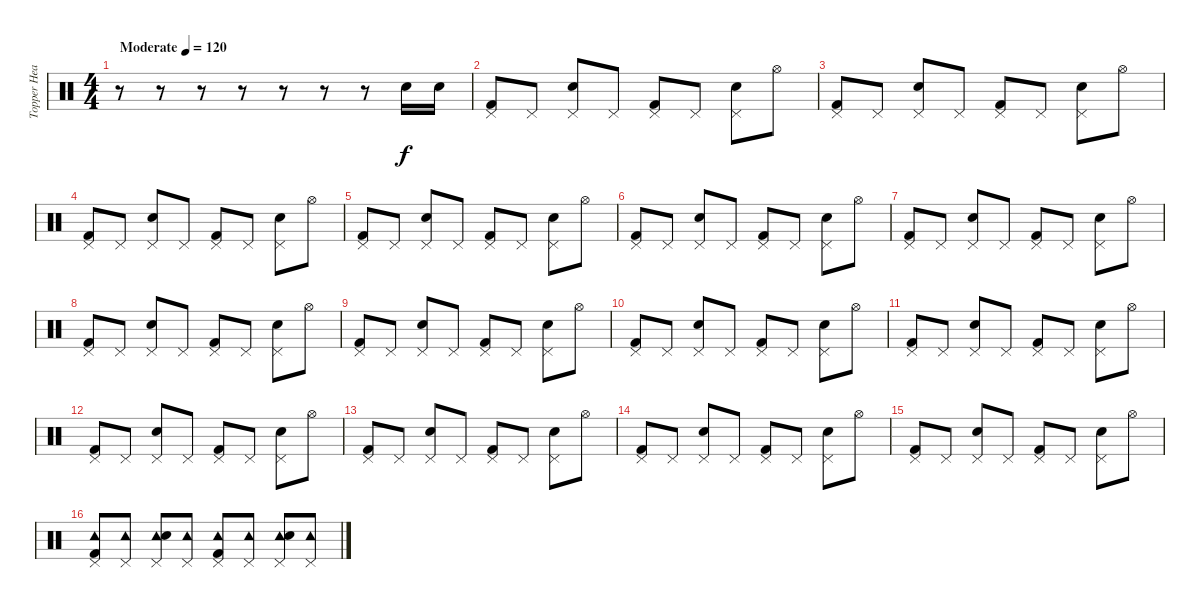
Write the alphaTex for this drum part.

\track ("Topper Headon" "Topper Hea") {instrument percussion}
\staff {score}
\articulation defaults
\ts (4 4)
\tempo (120 "Moderate")
\clef neutral
\ks c
r.8{dy f} r.8 r.8 r.8 r.8 r.8 r.8 "Electric Snare (hit)".16 "Electric Snare (hit)".16 |
("Pedal Hi-Hat (hit)" "Kick (hit) 2").8 "Pedal Hi-Hat (hit)".8 ("Pedal Hi-Hat (hit)" "Electric Snare (hit)").8 "Pedal Hi-Hat (hit)".8 ("Pedal Hi-Hat (hit)" "Kick (hit) 2").8 "Pedal Hi-Hat (hit)".8 ("Pedal Hi-Hat (hit)" "Electric Snare (hit)").8 "Hi-Hat (open)".8 |
("Pedal Hi-Hat (hit)" "Kick (hit) 2").8 "Pedal Hi-Hat (hit)".8 ("Pedal Hi-Hat (hit)" "Electric Snare (hit)").8 "Pedal Hi-Hat (hit)".8 ("Pedal Hi-Hat (hit)" "Kick (hit) 2").8 "Pedal Hi-Hat (hit)".8 ("Pedal Hi-Hat (hit)" "Electric Snare (hit)").8 "Hi-Hat (open)".8 |
("Pedal Hi-Hat (hit)" "Kick (hit) 2").8 "Pedal Hi-Hat (hit)".8 ("Pedal Hi-Hat (hit)" "Electric Snare (hit)").8 "Pedal Hi-Hat (hit)".8 ("Pedal Hi-Hat (hit)" "Kick (hit) 2").8 "Pedal Hi-Hat (hit)".8 ("Pedal Hi-Hat (hit)" "Electric Snare (hit)").8 "Hi-Hat (open)".8 |
("Pedal Hi-Hat (hit)" "Kick (hit) 2").8 "Pedal Hi-Hat (hit)".8 ("Pedal Hi-Hat (hit)" "Electric Snare (hit)").8 "Pedal Hi-Hat (hit)".8 ("Pedal Hi-Hat (hit)" "Kick (hit) 2").8 "Pedal Hi-Hat (hit)".8 ("Pedal Hi-Hat (hit)" "Electric Snare (hit)").8 "Hi-Hat (open)".8 |
("Pedal Hi-Hat (hit)" "Kick (hit) 2").8 "Pedal Hi-Hat (hit)".8 ("Pedal Hi-Hat (hit)" "Electric Snare (hit)").8 "Pedal Hi-Hat (hit)".8 ("Pedal Hi-Hat (hit)" "Kick (hit) 2").8 "Pedal Hi-Hat (hit)".8 ("Pedal Hi-Hat (hit)" "Electric Snare (hit)").8 "Hi-Hat (open)".8 |
("Pedal Hi-Hat (hit)" "Kick (hit) 2").8 "Pedal Hi-Hat (hit)".8 ("Pedal Hi-Hat (hit)" "Electric Snare (hit)").8 "Pedal Hi-Hat (hit)".8 ("Pedal Hi-Hat (hit)" "Kick (hit) 2").8 "Pedal Hi-Hat (hit)".8 ("Pedal Hi-Hat (hit)" "Electric Snare (hit)").8 "Hi-Hat (open)".8 |
("Pedal Hi-Hat (hit)" "Kick (hit) 2").8 "Pedal Hi-Hat (hit)".8 ("Pedal Hi-Hat (hit)" "Electric Snare (hit)").8 "Pedal Hi-Hat (hit)".8 ("Pedal Hi-Hat (hit)" "Kick (hit) 2").8 "Pedal Hi-Hat (hit)".8 ("Pedal Hi-Hat (hit)" "Electric Snare (hit)").8 "Hi-Hat (open)".8 |
("Pedal Hi-Hat (hit)" "Kick (hit) 2").8 "Pedal Hi-Hat (hit)".8 ("Pedal Hi-Hat (hit)" "Electric Snare (hit)").8 "Pedal Hi-Hat (hit)".8 ("Pedal Hi-Hat (hit)" "Kick (hit) 2").8 "Pedal Hi-Hat (hit)".8 ("Pedal Hi-Hat (hit)" "Electric Snare (hit)").8 "Hi-Hat (open)".8 |
("Pedal Hi-Hat (hit)" "Kick (hit) 2").8 "Pedal Hi-Hat (hit)".8 ("Pedal Hi-Hat (hit)" "Electric Snare (hit)").8 "Pedal Hi-Hat (hit)".8 ("Pedal Hi-Hat (hit)" "Kick (hit) 2").8 "Pedal Hi-Hat (hit)".8 ("Pedal Hi-Hat (hit)" "Electric Snare (hit)").8 "Hi-Hat (open)".8 |
("Pedal Hi-Hat (hit)" "Kick (hit) 2").8 "Pedal Hi-Hat (hit)".8 ("Pedal Hi-Hat (hit)" "Electric Snare (hit)").8 "Pedal Hi-Hat (hit)".8 ("Pedal Hi-Hat (hit)" "Kick (hit) 2").8 "Pedal Hi-Hat (hit)".8 ("Pedal Hi-Hat (hit)" "Electric Snare (hit)").8 "Hi-Hat (open)".8 |
("Pedal Hi-Hat (hit)" "Kick (hit) 2").8 "Pedal Hi-Hat (hit)".8 ("Pedal Hi-Hat (hit)" "Electric Snare (hit)").8 "Pedal Hi-Hat (hit)".8 ("Pedal Hi-Hat (hit)" "Kick (hit) 2").8 "Pedal Hi-Hat (hit)".8 ("Pedal Hi-Hat (hit)" "Electric Snare (hit)").8 "Hi-Hat (open)".8 |
("Pedal Hi-Hat (hit)" "Kick (hit) 2").8 "Pedal Hi-Hat (hit)".8 ("Pedal Hi-Hat (hit)" "Electric Snare (hit)").8 "Pedal Hi-Hat (hit)".8 ("Pedal Hi-Hat (hit)" "Kick (hit) 2").8 "Pedal Hi-Hat (hit)".8 ("Pedal Hi-Hat (hit)" "Electric Snare (hit)").8 "Hi-Hat (open)".8 |
("Pedal Hi-Hat (hit)" "Kick (hit) 2").8 "Pedal Hi-Hat (hit)".8 ("Pedal Hi-Hat (hit)" "Electric Snare (hit)").8 "Pedal Hi-Hat (hit)".8 ("Pedal Hi-Hat (hit)" "Kick (hit) 2").8 "Pedal Hi-Hat (hit)".8 ("Pedal Hi-Hat (hit)" "Electric Snare (hit)").8 "Hi-Hat (open)".8 |
("Pedal Hi-Hat (hit)" "Kick (hit) 2").8 "Pedal Hi-Hat (hit)".8 ("Pedal Hi-Hat (hit)" "Electric Snare (hit)").8 "Pedal Hi-Hat (hit)".8 ("Pedal Hi-Hat (hit)" "Kick (hit) 2").8 "Pedal Hi-Hat (hit)".8 ("Pedal Hi-Hat (hit)" "Electric Snare (hit)").8 "Hi-Hat (open)".8 |
("Tambourine (hit)" "Pedal Hi-Hat (hit)" "Kick (hit) 2").8 ("Tambourine (hit)" "Pedal Hi-Hat (hit)").8 ("Tambourine (hit)" "Pedal Hi-Hat (hit)" "Electric Snare (hit)").8 ("Tambourine (hit)" "Pedal Hi-Hat (hit)").8 ("Tambourine (hit)" "Pedal Hi-Hat (hit)" "Kick (hit) 2").8 ("Tambourine (hit)" "Pedal Hi-Hat (hit)").8 ("Tambourine (hit)" "Pedal Hi-Hat (hit)" "Electric Snare (hit)").8 ("Tambourine (hit)" "Pedal Hi-Hat (hit)").8
